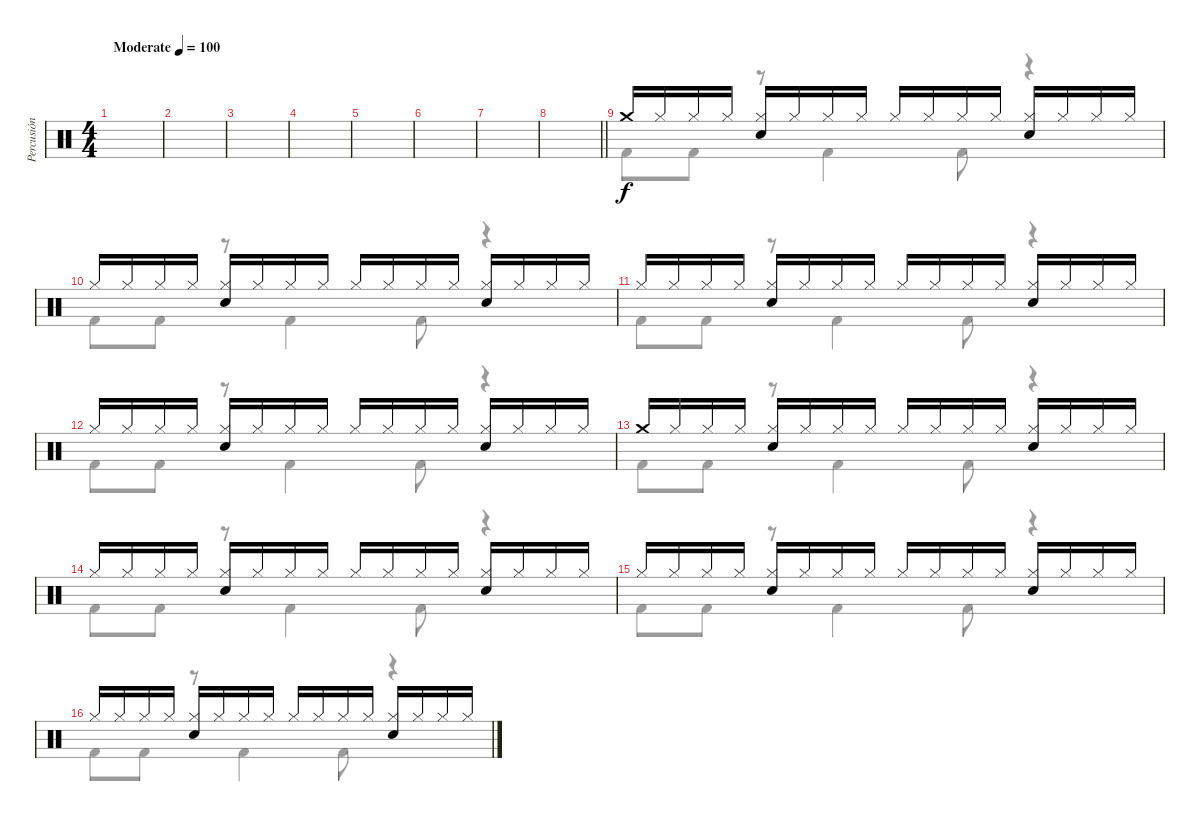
\track ("Percusión" "Percusión") {instrument percussion}
\staff {score}
\articulation defaults
\voice
\ts (4 4)
\tempo (100 "Moderate")
\clef neutral
\ks c
|
|
|
|
|
|
|
\barLineRight lightlight
|
"Crash medium (hit)".16 "Hi-Hat (closed)".16 "Hi-Hat (closed)".16 "Hi-Hat (closed)".16 ("Hi-Hat (closed)" "Snare (hit) 2").16 "Hi-Hat (closed)".16 "Hi-Hat (closed)".16 "Hi-Hat (closed)".16 "Hi-Hat (closed)".16 "Hi-Hat (closed)".16 "Hi-Hat (closed)".16 "Hi-Hat (closed)".16 ("Hi-Hat (closed)" "Snare (hit) 2").16 "Hi-Hat (closed)".16 "Hi-Hat (closed)".16 "Hi-Hat (closed)".16 |
"Hi-Hat (closed)".16 "Hi-Hat (closed)".16 "Hi-Hat (closed)".16 "Hi-Hat (closed)".16 ("Hi-Hat (closed)" "Snare (hit) 2").16 "Hi-Hat (closed)".16 "Hi-Hat (closed)".16 "Hi-Hat (closed)".16 "Hi-Hat (closed)".16 "Hi-Hat (closed)".16 "Hi-Hat (closed)".16 "Hi-Hat (closed)".16 ("Hi-Hat (closed)" "Snare (hit) 2").16 "Hi-Hat (closed)".16 "Hi-Hat (closed)".16 "Hi-Hat (closed)".16 |
"Hi-Hat (closed)".16 "Hi-Hat (closed)".16 "Hi-Hat (closed)".16 "Hi-Hat (closed)".16 ("Hi-Hat (closed)" "Snare (hit) 2").16 "Hi-Hat (closed)".16 "Hi-Hat (closed)".16 "Hi-Hat (closed)".16 "Hi-Hat (closed)".16 "Hi-Hat (closed)".16 "Hi-Hat (closed)".16 "Hi-Hat (closed)".16 ("Hi-Hat (closed)" "Snare (hit) 2").16 "Hi-Hat (closed)".16 "Hi-Hat (closed)".16 "Hi-Hat (closed)".16 |
"Hi-Hat (closed)".16 "Hi-Hat (closed)".16 "Hi-Hat (closed)".16 "Hi-Hat (closed)".16 ("Hi-Hat (closed)" "Snare (hit) 2").16 "Hi-Hat (closed)".16 "Hi-Hat (closed)".16 "Hi-Hat (closed)".16 "Hi-Hat (closed)".16 "Hi-Hat (closed)".16 "Hi-Hat (closed)".16 "Hi-Hat (closed)".16 ("Hi-Hat (closed)" "Snare (hit) 2").16 "Hi-Hat (closed)".16 "Hi-Hat (closed)".16 "Hi-Hat (closed)".16 |
"Crash medium (hit)".16 "Hi-Hat (closed)".16 "Hi-Hat (closed)".16 "Hi-Hat (closed)".16 ("Hi-Hat (closed)" "Snare (hit) 2").16 "Hi-Hat (closed)".16 "Hi-Hat (closed)".16 "Hi-Hat (closed)".16 "Hi-Hat (closed)".16 "Hi-Hat (closed)".16 "Hi-Hat (closed)".16 "Hi-Hat (closed)".16 ("Hi-Hat (closed)" "Snare (hit) 2").16 "Hi-Hat (closed)".16 "Hi-Hat (closed)".16 "Hi-Hat (closed)".16 |
"Hi-Hat (closed)".16 "Hi-Hat (closed)".16 "Hi-Hat (closed)".16 "Hi-Hat (closed)".16 ("Hi-Hat (closed)" "Snare (hit) 2").16 "Hi-Hat (closed)".16 "Hi-Hat (closed)".16 "Hi-Hat (closed)".16 "Hi-Hat (closed)".16 "Hi-Hat (closed)".16 "Hi-Hat (closed)".16 "Hi-Hat (closed)".16 ("Hi-Hat (closed)" "Snare (hit) 2").16 "Hi-Hat (closed)".16 "Hi-Hat (closed)".16 "Hi-Hat (closed)".16 |
"Hi-Hat (closed)".16 "Hi-Hat (closed)".16 "Hi-Hat (closed)".16 "Hi-Hat (closed)".16 ("Hi-Hat (closed)" "Snare (hit) 2").16 "Hi-Hat (closed)".16 "Hi-Hat (closed)".16 "Hi-Hat (closed)".16 "Hi-Hat (closed)".16 "Hi-Hat (closed)".16 "Hi-Hat (closed)".16 "Hi-Hat (closed)".16 ("Hi-Hat (closed)" "Snare (hit) 2").16 "Hi-Hat (closed)".16 "Hi-Hat (closed)".16 "Hi-Hat (closed)".16 |
"Hi-Hat (closed)".16 "Hi-Hat (closed)".16 "Hi-Hat (closed)".16 "Hi-Hat (closed)".16 ("Hi-Hat (closed)" "Snare (hit) 2").16 "Hi-Hat (closed)".16 "Hi-Hat (closed)".16 "Hi-Hat (closed)".16 "Hi-Hat (closed)".16 "Hi-Hat (closed)".16 "Hi-Hat (closed)".16 "Hi-Hat (closed)".16 ("Hi-Hat (closed)" "Snare (hit) 2").16 "Hi-Hat (closed)".16 "Hi-Hat (closed)".16 "Hi-Hat (closed)".16
\voice
\clef neutral
\ottava regular
\simile none
\ks c
|
|
|
|
|
|
|
\barLineRight lightlight
|
"Kick (hit) 2".8 "Kick (hit) 2".8 r.8 "Kick (hit) 2".4 "Kick (hit) 2".8 r.4 |
"Kick (hit) 2".8 "Kick (hit) 2".8 r.8 "Kick (hit) 2".4 "Kick (hit) 2".8 r.4 |
"Kick (hit) 2".8 "Kick (hit) 2".8 r.8 "Kick (hit) 2".4 "Kick (hit) 2".8 r.4 |
"Kick (hit) 2".8 "Kick (hit) 2".8 r.8 "Kick (hit) 2".4 "Kick (hit) 2".8 r.4 |
"Kick (hit) 2".8 "Kick (hit) 2".8 r.8 "Kick (hit) 2".4 "Kick (hit) 2".8 r.4 |
"Kick (hit) 2".8 "Kick (hit) 2".8 r.8 "Kick (hit) 2".4 "Kick (hit) 2".8 r.4 |
"Kick (hit) 2".8 "Kick (hit) 2".8 r.8 "Kick (hit) 2".4 "Kick (hit) 2".8 r.4 |
"Kick (hit) 2".8 "Kick (hit) 2".8 r.8 "Kick (hit) 2".4 "Kick (hit) 2".8 r.4
